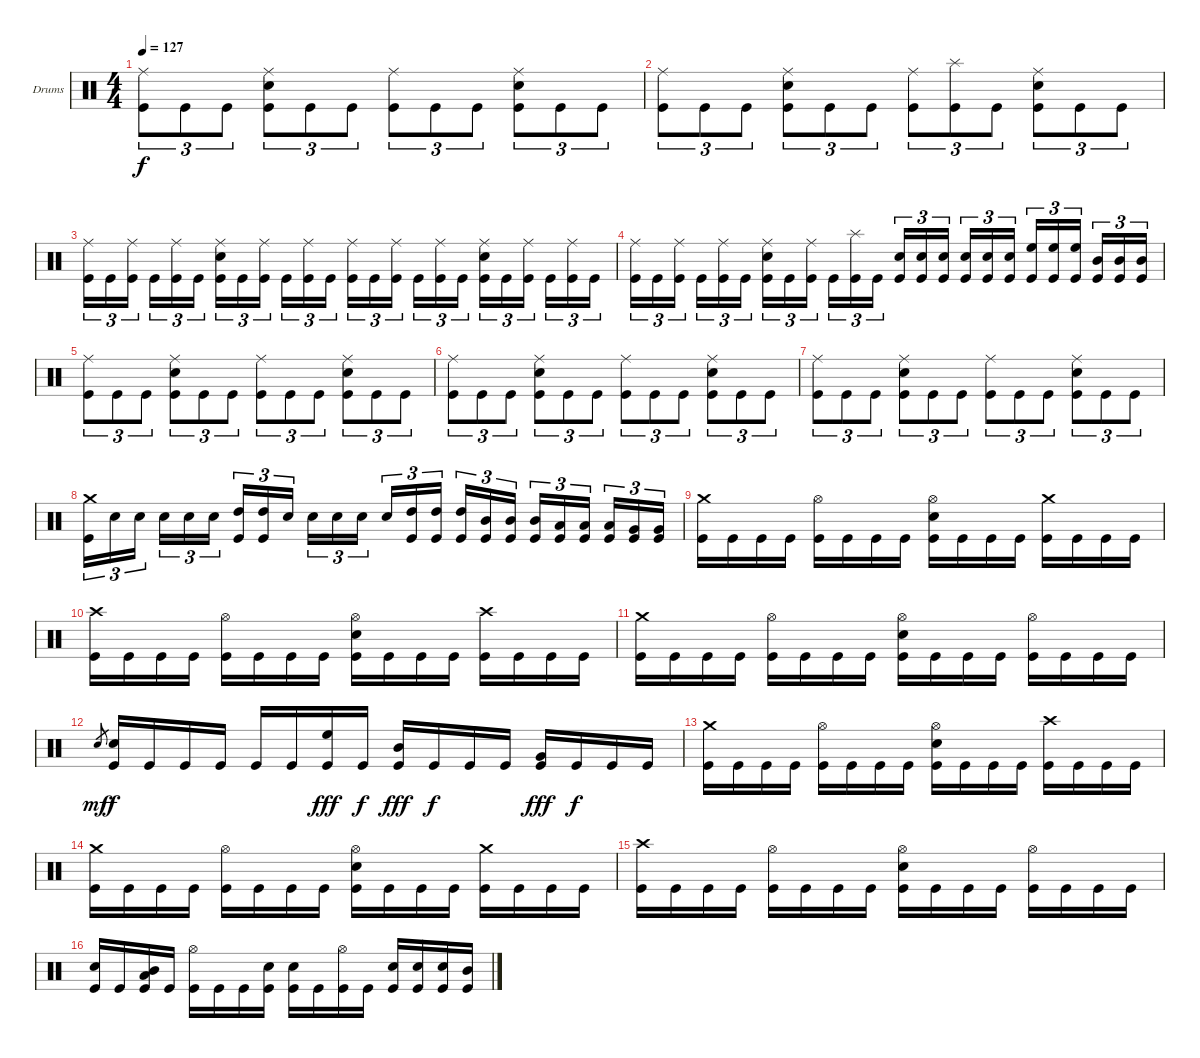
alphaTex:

\bracketExtendMode groupsimilarinstruments
\firstSystemTrackNameOrientation horizontal
\otherSystemsTrackNameOrientation horizontal
\track ("Drumkit" "Drums") {instrument percussion}
\staff {score}
\articulation defaults
\ts (4 4)
\tempo 127
\clef neutral
\ks c
("Ride (middle)" "Kick (hit)").8{tu (3 2) dy f} "Kick (hit)".8{tu (3 2)} "Kick (hit)".8{tu (3 2)} ("Ride (middle)" "Snare (hit) 2" "Kick (hit)").8{tu (3 2)} "Kick (hit)".8{tu (3 2)} "Kick (hit)".8{tu (3 2)} ("Ride (middle)" "Kick (hit)").8{tu (3 2)} "Kick (hit)".8{tu (3 2)} "Kick (hit)".8{tu (3 2)} ("Ride (middle)" "Snare (hit) 2" "Kick (hit)").8{tu (3 2)} "Kick (hit)".8{tu (3 2)} "Kick (hit)".8{tu (3 2)} |
("Ride (middle)" "Kick (hit)").8{tu (3 2)} "Kick (hit)".8{tu (3 2)} "Kick (hit)".8{tu (3 2)} ("Ride (middle)" "Snare (hit) 2" "Kick (hit)").8{tu (3 2)} "Kick (hit)".8{tu (3 2)} "Kick (hit)".8{tu (3 2)} ("Ride (middle)" "Kick (hit)").8{tu (3 2)} ("Splash (hit)" "Kick (hit)").8{tu (3 2)} "Kick (hit)".8{tu (3 2)} ("Ride (middle)" "Snare (hit) 2" "Kick (hit)").8{tu (3 2)} "Kick (hit)".8{tu (3 2)} "Kick (hit)".8{tu (3 2)} |
("Ride (middle)" "Kick (hit)").16{tu (3 2)} "Kick (hit)".16{tu (3 2)} ("Ride (middle)" "Kick (hit)").16{tu (3 2)} "Kick (hit)".16{tu (3 2)} ("Ride (middle)" "Kick (hit)").16{tu (3 2)} "Kick (hit)".16{tu (3 2)} ("Ride (middle)" "Snare (hit) 2" "Kick (hit)").16{tu (3 2)} "Kick (hit)".16{tu (3 2)} ("Ride (middle)" "Kick (hit)").16{tu (3 2)} "Kick (hit)".16{tu (3 2)} ("Ride (middle)" "Kick (hit)").16{tu (3 2)} "Kick (hit)".16{tu (3 2)} ("Ride (middle)" "Kick (hit)").16{tu (3 2)} "Kick (hit)".16{tu (3 2)} ("Ride (middle)" "Kick (hit)").16{tu (3 2)} "Kick (hit)".16{tu (3 2)} ("Ride (middle)" "Kick (hit)").16{tu (3 2)} "Kick (hit)".16{tu (3 2)} ("Ride (middle)" "Snare (hit) 2" "Kick (hit)").16{tu (3 2)} "Kick (hit)".16{tu (3 2)} ("Ride (middle)" "Kick (hit)").16{tu (3 2)} "Kick (hit)".16{tu (3 2)} ("Ride (middle)" "Kick (hit)").16{tu (3 2)} "Kick (hit)".16{tu (3 2)} |
("Ride (middle)" "Kick (hit)").16{tu (3 2)} "Kick (hit)".16{tu (3 2)} ("Ride (middle)" "Kick (hit)").16{tu (3 2)} "Kick (hit)".16{tu (3 2)} ("Ride (middle)" "Kick (hit)").16{tu (3 2)} "Kick (hit)".16{tu (3 2)} ("Ride (middle)" "Snare (hit) 2" "Kick (hit)").16{tu (3 2)} "Kick (hit)".16{tu (3 2)} ("Ride (middle)" "Kick (hit)").16{tu (3 2)} "Kick (hit)".16{tu (3 2)} ("Splash (hit)" "Kick (hit)").16{tu (3 2)} "Kick (hit)".16{tu (3 2)} ("Snare (hit) 2" "Kick (hit)").16{tu (3 2)} ("Snare (hit) 2" "Kick (hit)").16{tu (3 2)} ("Snare (hit) 2" "Kick (hit)").16{tu (3 2)} ("Snare (hit) 2" "Kick (hit)").16{tu (3 2)} ("Snare (hit) 2" "Kick (hit)").16{tu (3 2)} ("Snare (hit) 2" "Kick (hit)").16{tu (3 2)} ("High Floor Tom (hit)" "Kick (hit)").16{tu (3 2)} ("High Floor Tom (hit)" "Kick (hit)").16{tu (3 2)} ("High Floor Tom (hit)" "Kick (hit)").16{tu (3 2)} ("Mid Tom (hit)" "Kick (hit)").16{tu (3 2)} ("Mid Tom (hit)" "Kick (hit)").16{tu (3 2)} ("Mid Tom (hit)" "Kick (hit)").16{tu (3 2)} |
("Ride (middle)" "Kick (hit)").8{tu (3 2)} "Kick (hit)".8{tu (3 2)} "Kick (hit)".8{tu (3 2)} ("Ride (middle)" "Snare (hit) 2" "Kick (hit)").8{tu (3 2)} "Kick (hit)".8{tu (3 2)} "Kick (hit)".8{tu (3 2)} ("Ride (middle)" "Kick (hit)").8{tu (3 2)} "Kick (hit)".8{tu (3 2)} "Kick (hit)".8{tu (3 2)} ("Ride (middle)" "Snare (hit) 2" "Kick (hit)").8{tu (3 2)} "Kick (hit)".8{tu (3 2)} "Kick (hit)".8{tu (3 2)} |
("Ride (middle)" "Kick (hit)").8{tu (3 2)} "Kick (hit)".8{tu (3 2)} "Kick (hit)".8{tu (3 2)} ("Ride (middle)" "Snare (hit) 2" "Kick (hit)").8{tu (3 2)} "Kick (hit)".8{tu (3 2)} "Kick (hit)".8{tu (3 2)} ("Ride (middle)" "Kick (hit)").8{tu (3 2)} "Kick (hit)".8{tu (3 2)} "Kick (hit)".8{tu (3 2)} ("Ride (middle)" "Snare (hit) 2" "Kick (hit)").8{tu (3 2)} "Kick (hit)".8{tu (3 2)} "Kick (hit)".8{tu (3 2)} |
("Ride (middle)" "Kick (hit)").8{tu (3 2)} "Kick (hit)".8{tu (3 2)} "Kick (hit)".8{tu (3 2)} ("Ride (middle)" "Snare (hit) 2" "Kick (hit)").8{tu (3 2)} "Kick (hit)".8{tu (3 2)} "Kick (hit)".8{tu (3 2)} ("Ride (middle)" "Kick (hit)").8{tu (3 2)} "Kick (hit)".8{tu (3 2)} "Kick (hit)".8{tu (3 2)} ("Ride (middle)" "Snare (hit) 2" "Kick (hit)").8{tu (3 2)} "Kick (hit)".8{tu (3 2)} "Kick (hit)".8{tu (3 2)} |
("Crash medium (hit)" "Kick (hit)").16{tu (3 2)} "Snare (hit) 2".16{tu (3 2)} "Snare (hit) 2".16{tu (3 2)} "Snare (hit) 2".16{tu (3 2)} "Snare (hit) 2".16{tu (3 2)} "Snare (hit) 2".16{tu (3 2)} ("High Tom (hit)" "Kick (hit)").16{tu (3 2)} ("High Tom (hit)" "Kick (hit)").16{tu (3 2)} "Snare (hit) 2".16{tu (3 2)} "Snare (hit) 2".16{tu (3 2)} "Snare (hit) 2".16{tu (3 2)} "Snare (hit) 2".16{tu (3 2)} "Snare (hit) 2".16{tu (3 2)} ("High Tom (hit)" "Kick (hit)").16{tu (3 2)} ("High Tom (hit)" "Kick (hit)").16{tu (3 2)} ("High Tom (hit)" "Kick (hit)").16{tu (3 2)} ("Mid Tom (hit)" "Kick (hit)").16{tu (3 2)} ("Mid Tom (hit)" "Kick (hit)").16{tu (3 2)} ("Mid Tom (hit)" "Kick (hit)").16{tu (3 2)} ("Low Tom (hit)" "Kick (hit)").16{tu (3 2)} ("Low Tom (hit)" "Kick (hit)").16{tu (3 2)} ("Low Tom (hit)" "Kick (hit)").16{tu (3 2)} ("Very Low Tom (hit)" "Kick (hit)").16{tu (3 2)} ("Very Low Tom (hit)" "Kick (hit)").16{tu (3 2)} |
("Crash medium (hit)" "Kick (hit)").16 "Kick (hit)".16 "Kick (hit)".16 "Kick (hit)".16 ("Hi-Hat (open)" "Kick (hit)").16 "Kick (hit)".16 "Kick (hit)".16 "Kick (hit)".16 ("Hi-Hat (open)" "Snare (hit) 2" "Kick (hit)").16 "Kick (hit)".16 "Kick (hit)".16 "Kick (hit)".16 ("Crash medium (hit)" "Kick (hit)").16 "Kick (hit)".16 "Kick (hit)".16 "Kick (hit)".16 |
("Crash high (hit)" "Kick (hit)").16 "Kick (hit)".16 "Kick (hit)".16 "Kick (hit)".16 ("Hi-Hat (open)" "Kick (hit)").16 "Kick (hit)".16 "Kick (hit)".16 "Kick (hit)".16 ("Hi-Hat (open)" "Snare (hit) 2" "Kick (hit)").16 "Kick (hit)".16 "Kick (hit)".16 "Kick (hit)".16 ("Crash high (hit)" "Kick (hit)").16 "Kick (hit)".16 "Kick (hit)".16 "Kick (hit)".16 |
("Crash medium (hit)" "Kick (hit)").16 "Kick (hit)".16 "Kick (hit)".16 "Kick (hit)".16 ("Hi-Hat (open)" "Kick (hit)").16 "Kick (hit)".16 "Kick (hit)".16 "Kick (hit)".16 ("Hi-Hat (open)" "Snare (hit) 2" "Kick (hit)").16 "Kick (hit)".16 "Kick (hit)".16 "Kick (hit)".16 ("Hi-Hat (open)" "Kick (hit)").16 "Kick (hit)".16 "Kick (hit)".16 "Kick (hit)".16 |
"Snare (hit) 2".8{gr dy mf} ("Snare (hit) 2" "Kick (hit)").16{dy f} "Kick (hit)".16 "Kick (hit)".16 "Kick (hit)".16 "Kick (hit)".16 "Kick (hit)".16 ("High Floor Tom (hit)" "Kick (hit)").16{dy fff} "Kick (hit)".16{dy f} ("Mid Tom (hit)" "Kick (hit)").16{dy fff} "Kick (hit)".16{dy f} "Kick (hit)".16 "Kick (hit)".16 ("Very Low Tom (hit)" "Kick (hit)").16{dy fff} "Kick (hit)".16{dy f} "Kick (hit)".16 "Kick (hit)".16 |
("Crash medium (hit)" "Kick (hit)").16 "Kick (hit)".16 "Kick (hit)".16 "Kick (hit)".16 ("Hi-Hat (open)" "Kick (hit)").16 "Kick (hit)".16 "Kick (hit)".16 "Kick (hit)".16 ("Hi-Hat (open)" "Snare (hit) 2" "Kick (hit)").16 "Kick (hit)".16 "Kick (hit)".16 "Kick (hit)".16 ("Crash high (hit)" "Kick (hit)").16 "Kick (hit)".16 "Kick (hit)".16 "Kick (hit)".16 |
("Crash medium (hit)" "Kick (hit)").16 "Kick (hit)".16 "Kick (hit)".16 "Kick (hit)".16 ("Hi-Hat (open)" "Kick (hit)").16 "Kick (hit)".16 "Kick (hit)".16 "Kick (hit)".16 ("Hi-Hat (open)" "Snare (hit) 2" "Kick (hit)").16 "Kick (hit)".16 "Kick (hit)".16 "Kick (hit)".16 ("Crash medium (hit)" "Kick (hit)").16 "Kick (hit)".16 "Kick (hit)".16 "Kick (hit)".16 |
("Crash high (hit)" "Kick (hit)").16 "Kick (hit)".16 "Kick (hit)".16 "Kick (hit)".16 ("Hi-Hat (open)" "Kick (hit)").16 "Kick (hit)".16 "Kick (hit)".16 "Kick (hit)".16 ("Hi-Hat (open)" "Snare (hit) 2" "Kick (hit)").16 "Kick (hit)".16 "Kick (hit)".16 "Kick (hit)".16 ("Hi-Hat (open)" "Kick (hit)").16 "Kick (hit)".16 "Kick (hit)".16 "Kick (hit)".16 |
("Snare (hit) 2" "Kick (hit)").16 "Kick (hit)".16 ("Mid Tom (hit)" "Low Tom (hit)" "Kick (hit)").16 "Kick (hit)".16 ("Hi-Hat (open)" "Kick (hit)").16 "Kick (hit)".16 "Kick (hit)".16 ("Snare (hit) 2" "Kick (hit)").16 ("Snare (hit) 2" "Kick (hit)").16 "Kick (hit)".16 ("Hi-Hat (open)" "Kick (hit)").16 "Kick (hit)".16 ("Snare (hit) 2" "Kick (hit)").16 ("Snare (hit) 2" "Kick (hit)").16 ("Snare (hit) 2" "Kick (hit)").16 ("Mid Tom (hit)" "Kick (hit)").16
